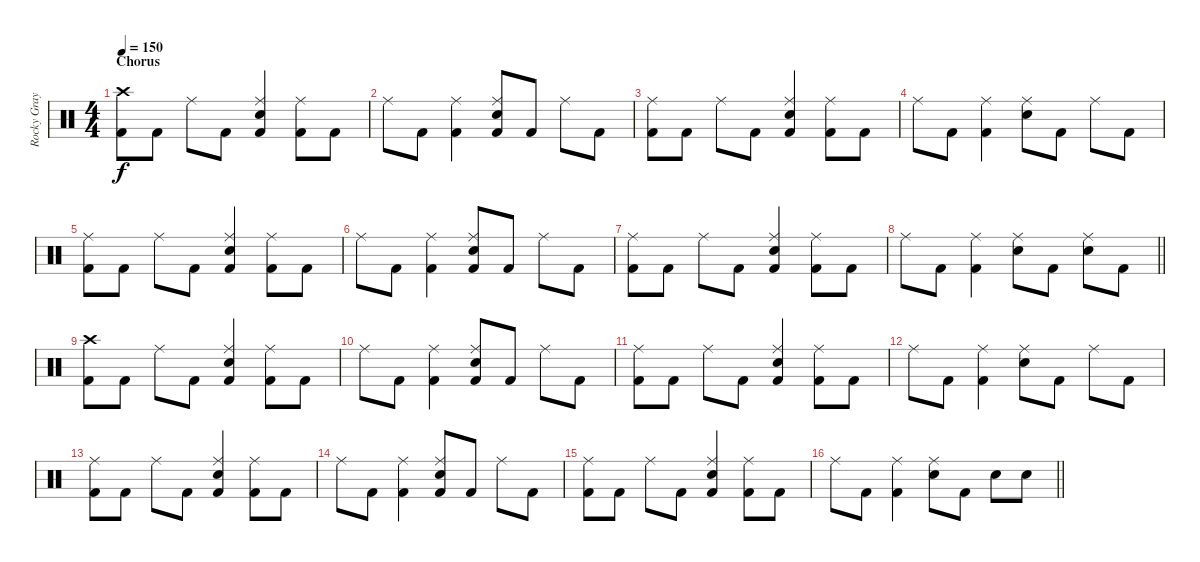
\track ("Rocky Gray" "Rocky Gray") {instrument percussion}
\staff {score}
\articulation defaults
\ts (4 4)
\section ("" "Chorus")
\tempo 150
\clef neutral
\ks c
("Crash high (hit)" "Kick (hit) 2").8{dy f} "Kick (hit) 2".8 "Ride (middle)".8 "Kick (hit) 2".8 ("Ride (middle)" "Snare (hit) 2" "Kick (hit) 2").4 ("Ride (middle)" "Kick (hit) 2").8 "Kick (hit) 2".8 |
"Ride (middle)".8 "Kick (hit) 2".8 ("Ride (middle)" "Kick (hit) 2").4 ("Ride (middle)" "Snare (hit) 2" "Kick (hit) 2").8 "Kick (hit) 2".8 "Ride (middle)".8 "Kick (hit) 2".8 |
("Ride (middle)" "Kick (hit) 2").8 "Kick (hit) 2".8 "Ride (middle)".8 "Kick (hit) 2".8 ("Ride (middle)" "Snare (hit) 2" "Kick (hit) 2").4 ("Ride (middle)" "Kick (hit) 2").8 "Kick (hit) 2".8 |
"Ride (middle)".8 "Kick (hit) 2".8 ("Ride (middle)" "Kick (hit) 2").4 ("Ride (middle)" "Snare (hit) 2").8 "Kick (hit) 2".8 "Ride (middle)".8 "Kick (hit) 2".8 |
("Ride (middle)" "Kick (hit) 2").8 "Kick (hit) 2".8 "Ride (middle)".8 "Kick (hit) 2".8 ("Ride (middle)" "Snare (hit) 2" "Kick (hit) 2").4 ("Ride (middle)" "Kick (hit) 2").8 "Kick (hit) 2".8 |
"Ride (middle)".8 "Kick (hit) 2".8 ("Ride (middle)" "Kick (hit) 2").4 ("Ride (middle)" "Snare (hit) 2" "Kick (hit) 2").8 "Kick (hit) 2".8 "Ride (middle)".8 "Kick (hit) 2".8 |
("Ride (middle)" "Kick (hit) 2").8 "Kick (hit) 2".8 "Ride (middle)".8 "Kick (hit) 2".8 ("Ride (middle)" "Snare (hit) 2" "Kick (hit) 2").4 ("Ride (middle)" "Kick (hit) 2").8 "Kick (hit) 2".8 |
\barLineRight lightlight "Ride (middle)".8 "Kick (hit) 2".8
("Ride (middle)" "Kick (hit) 2").4 ("Ride (middle)" "Snare (hit) 2").8 "Kick (hit) 2".8 ("Ride (middle)" "Snare (hit) 2").8 "Kick (hit) 2".8 |
("Crash high (hit)" "Kick (hit) 2").8 "Kick (hit) 2".8 "Ride (middle)".8 "Kick (hit) 2".8 ("Ride (middle)" "Snare (hit) 2" "Kick (hit) 2").4 ("Ride (middle)" "Kick (hit) 2").8 "Kick (hit) 2".8 |
"Ride (middle)".8 "Kick (hit) 2".8 ("Ride (middle)" "Kick (hit) 2").4 ("Ride (middle)" "Snare (hit) 2" "Kick (hit) 2").8 "Kick (hit) 2".8 "Ride (middle)".8 "Kick (hit) 2".8 |
("Ride (middle)" "Kick (hit) 2").8 "Kick (hit) 2".8 "Ride (middle)".8 "Kick (hit) 2".8 ("Ride (middle)" "Snare (hit) 2" "Kick (hit) 2").4 ("Ride (middle)" "Kick (hit) 2").8 "Kick (hit) 2".8 |
"Ride (middle)".8 "Kick (hit) 2".8 ("Ride (middle)" "Kick (hit) 2").4 ("Ride (middle)" "Snare (hit) 2").8 "Kick (hit) 2".8 "Ride (middle)".8 "Kick (hit) 2".8 |
("Ride (middle)" "Kick (hit) 2").8 "Kick (hit) 2".8 "Ride (middle)".8 "Kick (hit) 2".8 ("Ride (middle)" "Snare (hit) 2" "Kick (hit) 2").4 ("Ride (middle)" "Kick (hit) 2").8 "Kick (hit) 2".8 |
"Ride (middle)".8 "Kick (hit) 2".8 ("Ride (middle)" "Kick (hit) 2").4 ("Ride (middle)" "Snare (hit) 2" "Kick (hit) 2").8 "Kick (hit) 2".8 "Ride (middle)".8 "Kick (hit) 2".8 |
("Ride (middle)" "Kick (hit) 2").8 "Kick (hit) 2".8 "Ride (middle)".8 "Kick (hit) 2".8 ("Ride (middle)" "Snare (hit) 2" "Kick (hit) 2").4 ("Ride (middle)" "Kick (hit) 2").8 "Kick (hit) 2".8 |
\barLineRight lightlight "Ride (middle)".8 "Kick (hit) 2".8
("Ride (middle)" "Kick (hit) 2").4 ("Ride (middle)" "Snare (hit) 2").8 "Kick (hit) 2".8 "Snare (hit) 2".8 "Snare (hit) 2".8
